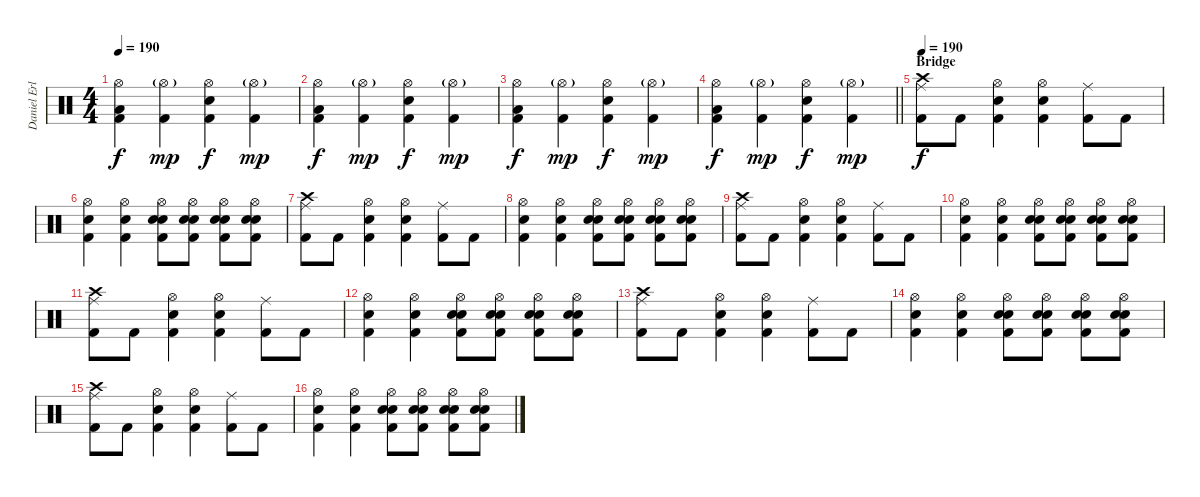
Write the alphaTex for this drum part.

\track ("Daniel Erlandsson" "Daniel Erl") {instrument percussion}
\staff {score}
\articulation defaults
\ts (4 4)
\tempo 190
\clef neutral
\ks c
("Hi-Hat (open)" "Low Floor Tom (hit)" "Kick (hit) 2").4{dy f} ("Hi-Hat (open)"{g} "Kick (hit) 2").4{dy mp} ("Hi-Hat (open)" "Snare (hit) 2" "Kick (hit) 2").4{dy f} ("Hi-Hat (open)"{g} "Kick (hit) 2").4{dy mp} |
("Hi-Hat (open)" "Low Floor Tom (hit)" "Kick (hit) 2").4{dy f} ("Hi-Hat (open)"{g} "Kick (hit) 2").4{dy mp} ("Hi-Hat (open)" "Snare (hit) 2" "Kick (hit) 2").4{dy f} ("Hi-Hat (open)"{g} "Kick (hit) 2").4{dy mp} |
("Hi-Hat (open)" "Low Floor Tom (hit)" "Kick (hit) 2").4{dy f} ("Hi-Hat (open)"{g} "Kick (hit) 2").4{dy mp} ("Hi-Hat (open)" "Snare (hit) 2" "Kick (hit) 2").4{dy f} ("Hi-Hat (open)"{g} "Kick (hit) 2").4{dy mp} |
\barLineRight lightlight
("Hi-Hat (open)" "Low Floor Tom (hit)" "Kick (hit) 2").4{dy f} ("Hi-Hat (open)"{g} "Kick (hit) 2").4{dy mp} ("Hi-Hat (open)" "Snare (hit) 2" "Kick (hit) 2").4{dy f} ("Hi-Hat (open)"{g} "Kick (hit) 2").4{dy mp} |
\section ("" "Bridge")
\tempo 190
("Crash high (hit)" "Ride (middle)" "Kick (hit) 2").8{dy f} "Kick (hit) 2".8 ("Hi-Hat (open)" "Snare (hit) 2" "Kick (hit) 2").4 ("Hi-Hat (open)" "Snare (hit) 2" "Kick (hit) 2").4 ("Ride (middle)" "Kick (hit) 2").8 "Kick (hit) 2".8 |
("Hi-Hat (open)" "Snare (hit) 2" "Kick (hit) 2").4 ("Hi-Hat (open)" "Snare (hit) 2" "Kick (hit) 2").4 ("Hi-Hat (open)" "Snare (hit) 2" "Electric Snare (hit)" "Kick (hit) 2").8 ("Hi-Hat (open)" "Snare (hit) 2" "Electric Snare (hit)" "Kick (hit) 2").8 ("Hi-Hat (open)" "Snare (hit) 2" "Electric Snare (hit)" "Kick (hit) 2").8 ("Hi-Hat (open)" "Snare (hit) 2" "Electric Snare (hit)" "Kick (hit) 2").8 |
("Crash high (hit)" "Ride (middle)" "Kick (hit) 2").8 "Kick (hit) 2".8 ("Hi-Hat (open)" "Snare (hit) 2" "Kick (hit) 2").4 ("Hi-Hat (open)" "Snare (hit) 2" "Kick (hit) 2").4 ("Ride (middle)" "Kick (hit) 2").8 "Kick (hit) 2".8 |
("Hi-Hat (open)" "Snare (hit) 2" "Kick (hit) 2").4 ("Hi-Hat (open)" "Snare (hit) 2" "Kick (hit) 2").4 ("Hi-Hat (open)" "Snare (hit) 2" "Electric Snare (hit)" "Kick (hit) 2").8 ("Hi-Hat (open)" "Snare (hit) 2" "Electric Snare (hit)" "Kick (hit) 2").8 ("Hi-Hat (open)" "Snare (hit) 2" "Electric Snare (hit)" "Kick (hit) 2").8 ("Hi-Hat (open)" "Snare (hit) 2" "Electric Snare (hit)" "Kick (hit) 2").8 |
("Crash high (hit)" "Ride (middle)" "Kick (hit) 2").8 "Kick (hit) 2".8 ("Hi-Hat (open)" "Snare (hit) 2" "Kick (hit) 2").4 ("Hi-Hat (open)" "Snare (hit) 2" "Kick (hit) 2").4 ("Ride (middle)" "Kick (hit) 2").8 "Kick (hit) 2".8 |
("Hi-Hat (open)" "Snare (hit) 2" "Kick (hit) 2").4 ("Hi-Hat (open)" "Snare (hit) 2" "Kick (hit) 2").4 ("Hi-Hat (open)" "Snare (hit) 2" "Electric Snare (hit)" "Kick (hit) 2").8 ("Hi-Hat (open)" "Snare (hit) 2" "Electric Snare (hit)" "Kick (hit) 2").8 ("Hi-Hat (open)" "Snare (hit) 2" "Electric Snare (hit)" "Kick (hit) 2").8 ("Hi-Hat (open)" "Snare (hit) 2" "Electric Snare (hit)" "Kick (hit) 2").8 |
("Crash high (hit)" "Ride (middle)" "Kick (hit) 2").8 "Kick (hit) 2".8 ("Hi-Hat (open)" "Snare (hit) 2" "Kick (hit) 2").4 ("Hi-Hat (open)" "Snare (hit) 2" "Kick (hit) 2").4 ("Ride (middle)" "Kick (hit) 2").8 "Kick (hit) 2".8 |
("Hi-Hat (open)" "Snare (hit) 2" "Kick (hit) 2").4 ("Hi-Hat (open)" "Snare (hit) 2" "Kick (hit) 2").4 ("Hi-Hat (open)" "Snare (hit) 2" "Electric Snare (hit)" "Kick (hit) 2").8 ("Hi-Hat (open)" "Snare (hit) 2" "Electric Snare (hit)" "Kick (hit) 2").8 ("Hi-Hat (open)" "Snare (hit) 2" "Electric Snare (hit)" "Kick (hit) 2").8 ("Hi-Hat (open)" "Snare (hit) 2" "Electric Snare (hit)" "Kick (hit) 2").8 |
("Crash high (hit)" "Ride (middle)" "Kick (hit) 2").8 "Kick (hit) 2".8 ("Hi-Hat (open)" "Snare (hit) 2" "Kick (hit) 2").4 ("Hi-Hat (open)" "Snare (hit) 2" "Kick (hit) 2").4 ("Ride (middle)" "Kick (hit) 2").8 "Kick (hit) 2".8 |
("Hi-Hat (open)" "Snare (hit) 2" "Kick (hit) 2").4 ("Hi-Hat (open)" "Snare (hit) 2" "Kick (hit) 2").4 ("Hi-Hat (open)" "Snare (hit) 2" "Electric Snare (hit)" "Kick (hit) 2").8 ("Hi-Hat (open)" "Snare (hit) 2" "Electric Snare (hit)" "Kick (hit) 2").8 ("Hi-Hat (open)" "Snare (hit) 2" "Electric Snare (hit)" "Kick (hit) 2").8 ("Hi-Hat (open)" "Snare (hit) 2" "Electric Snare (hit)" "Kick (hit) 2").8 |
("Crash high (hit)" "Ride (middle)" "Kick (hit) 2").8 "Kick (hit) 2".8 ("Hi-Hat (open)" "Snare (hit) 2" "Kick (hit) 2").4 ("Hi-Hat (open)" "Snare (hit) 2" "Kick (hit) 2").4 ("Ride (middle)" "Kick (hit) 2").8 "Kick (hit) 2".8 |
("Hi-Hat (open)" "Snare (hit) 2" "Kick (hit) 2").4 ("Hi-Hat (open)" "Snare (hit) 2" "Kick (hit) 2").4 ("Hi-Hat (open)" "Snare (hit) 2" "Electric Snare (hit)" "Kick (hit) 2").8 ("Hi-Hat (open)" "Snare (hit) 2" "Electric Snare (hit)" "Kick (hit) 2").8 ("Hi-Hat (open)" "Snare (hit) 2" "Electric Snare (hit)" "Kick (hit) 2").8 ("Hi-Hat (open)" "Snare (hit) 2" "Electric Snare (hit)" "Kick (hit) 2").8
